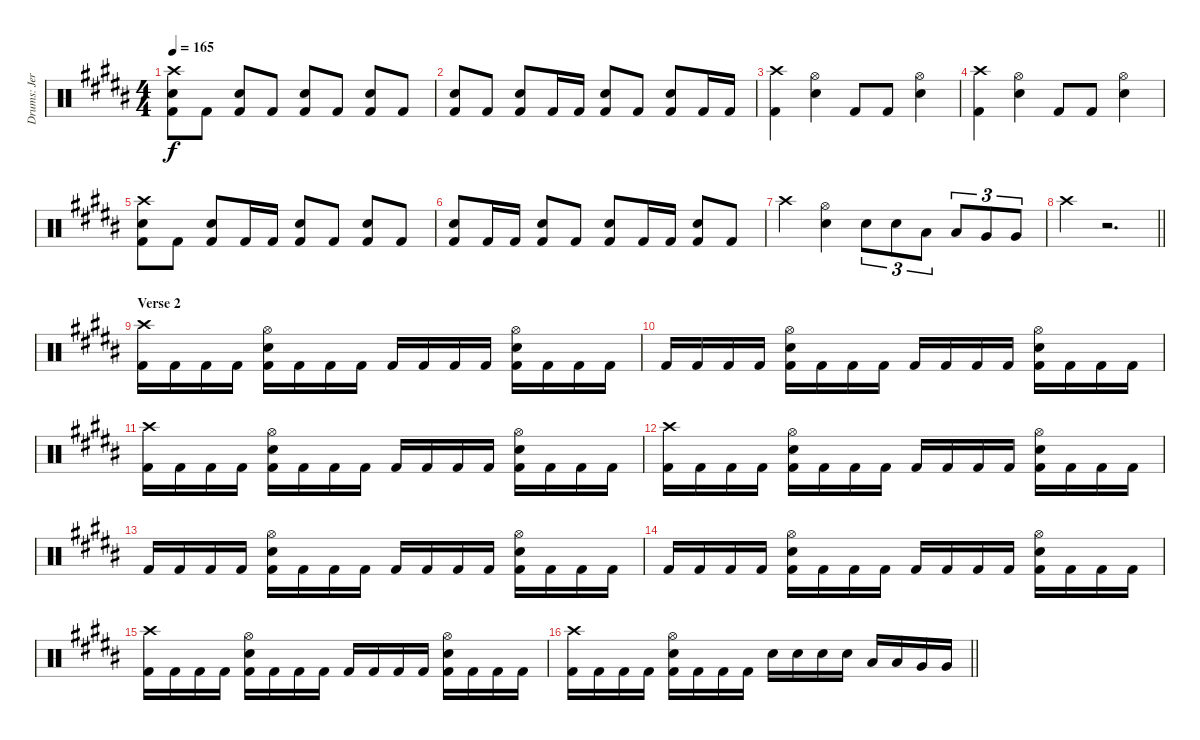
\track ("Drums: Jere Luokkamäki" "Drums: Jer") {instrument percussion}
\staff {score}
\articulation defaults
\ts (4 4)
\tempo 165
\clef neutral
\ks g#minor
("Crash high (hit)" "Electric Snare (hit)" "Kick (hit) 2").8{dy f} "Kick (hit) 2".8 ("Electric Snare (hit)" "Kick (hit) 2").8 "Kick (hit) 2".8 ("Electric Snare (hit)" "Kick (hit) 2").8 "Kick (hit) 2".8 ("Electric Snare (hit)" "Kick (hit) 2").8 "Kick (hit) 2".8 |
("Electric Snare (hit)" "Kick (hit) 2").8 "Kick (hit) 2".8 ("Electric Snare (hit)" "Kick (hit) 2").8 "Kick (hit) 2".16 "Kick (hit) 2".16 ("Electric Snare (hit)" "Kick (hit) 2").8 "Kick (hit) 2".8 ("Electric Snare (hit)" "Kick (hit) 2").8 "Kick (hit) 2".16 "Kick (hit) 2".16 |
("Crash high (hit)" "Kick (hit) 2").4 ("Hi-Hat (open)" "Electric Snare (hit)").4 "Kick (hit) 2".8 "Kick (hit) 2".8 ("Hi-Hat (open)" "Electric Snare (hit)").4 |
("Crash high (hit)" "Kick (hit) 2").4 ("Hi-Hat (open)" "Electric Snare (hit)").4 "Kick (hit) 2".8 "Kick (hit) 2".8 ("Hi-Hat (open)" "Electric Snare (hit)").4 |
("Crash high (hit)" "Electric Snare (hit)" "Kick (hit) 2").8 "Kick (hit) 2".8 ("Electric Snare (hit)" "Kick (hit) 2").8 "Kick (hit) 2".16 "Kick (hit) 2".16 ("Electric Snare (hit)" "Kick (hit) 2").8 "Kick (hit) 2".8 ("Electric Snare (hit)" "Kick (hit) 2").8 "Kick (hit) 2".8 |
("Electric Snare (hit)" "Kick (hit) 2").8 "Kick (hit) 2".16 "Kick (hit) 2".16 ("Electric Snare (hit)" "Kick (hit) 2").8 "Kick (hit) 2".8 ("Electric Snare (hit)" "Kick (hit) 2").8 "Kick (hit) 2".16 "Kick (hit) 2".16 ("Electric Snare (hit)" "Kick (hit) 2").8 "Kick (hit) 2".8 |
"Crash high (hit)".4 ("Hi-Hat (open)" "Electric Snare (hit)").4 "Electric Snare (hit)".8{tu (3 2)} "Electric Snare (hit)".8{tu (3 2)} "Low Tom (hit)".8{tu (3 2)} "Low Tom (hit)".8{tu (3 2)} "Very Low Tom (hit)".8{tu (3 2)} "Very Low Tom (hit)".8{tu (3 2)} |
\barLineRight lightlight "Crash high (hit)".4
r.2{d} |
\section ("" "Verse 2")
("Crash high (hit)" "Kick (hit) 2").16 "Kick (hit) 2".16 "Kick (hit) 2".16 "Kick (hit) 2".16 ("Hi-Hat (open)" "Electric Snare (hit)" "Kick (hit) 2").16 "Kick (hit) 2".16 "Kick (hit) 2".16 "Kick (hit) 2".16 "Kick (hit) 2".16 "Kick (hit) 2".16 "Kick (hit) 2".16 "Kick (hit) 2".16 ("Hi-Hat (open)" "Electric Snare (hit)" "Kick (hit) 2").16 "Kick (hit) 2".16 "Kick (hit) 2".16 "Kick (hit) 2".16 |
"Kick (hit) 2".16 "Kick (hit) 2".16 "Kick (hit) 2".16 "Kick (hit) 2".16 ("Hi-Hat (open)" "Electric Snare (hit)" "Kick (hit) 2").16 "Kick (hit) 2".16 "Kick (hit) 2".16 "Kick (hit) 2".16 "Kick (hit) 2".16 "Kick (hit) 2".16 "Kick (hit) 2".16 "Kick (hit) 2".16 ("Hi-Hat (open)" "Electric Snare (hit)" "Kick (hit) 2").16 "Kick (hit) 2".16 "Kick (hit) 2".16 "Kick (hit) 2".16 |
("Crash high (hit)" "Kick (hit) 2").16 "Kick (hit) 2".16 "Kick (hit) 2".16 "Kick (hit) 2".16 ("Hi-Hat (open)" "Electric Snare (hit)" "Kick (hit) 2").16 "Kick (hit) 2".16 "Kick (hit) 2".16 "Kick (hit) 2".16 "Kick (hit) 2".16 "Kick (hit) 2".16 "Kick (hit) 2".16 "Kick (hit) 2".16 ("Hi-Hat (open)" "Electric Snare (hit)" "Kick (hit) 2").16 "Kick (hit) 2".16 "Kick (hit) 2".16 "Kick (hit) 2".16 |
("Crash high (hit)" "Kick (hit) 2").16 "Kick (hit) 2".16 "Kick (hit) 2".16 "Kick (hit) 2".16 ("Hi-Hat (open)" "Electric Snare (hit)" "Kick (hit) 2").16 "Kick (hit) 2".16 "Kick (hit) 2".16 "Kick (hit) 2".16 "Kick (hit) 2".16 "Kick (hit) 2".16 "Kick (hit) 2".16 "Kick (hit) 2".16 ("Hi-Hat (open)" "Electric Snare (hit)" "Kick (hit) 2").16 "Kick (hit) 2".16 "Kick (hit) 2".16 "Kick (hit) 2".16 |
"Kick (hit) 2".16 "Kick (hit) 2".16 "Kick (hit) 2".16 "Kick (hit) 2".16 ("Hi-Hat (open)" "Electric Snare (hit)" "Kick (hit) 2").16 "Kick (hit) 2".16 "Kick (hit) 2".16 "Kick (hit) 2".16 "Kick (hit) 2".16 "Kick (hit) 2".16 "Kick (hit) 2".16 "Kick (hit) 2".16 ("Hi-Hat (open)" "Electric Snare (hit)" "Kick (hit) 2").16 "Kick (hit) 2".16 "Kick (hit) 2".16 "Kick (hit) 2".16 |
"Kick (hit) 2".16 "Kick (hit) 2".16 "Kick (hit) 2".16 "Kick (hit) 2".16 ("Hi-Hat (open)" "Electric Snare (hit)" "Kick (hit) 2").16 "Kick (hit) 2".16 "Kick (hit) 2".16 "Kick (hit) 2".16 "Kick (hit) 2".16 "Kick (hit) 2".16 "Kick (hit) 2".16 "Kick (hit) 2".16 ("Hi-Hat (open)" "Electric Snare (hit)" "Kick (hit) 2").16 "Kick (hit) 2".16 "Kick (hit) 2".16 "Kick (hit) 2".16 |
("Crash high (hit)" "Kick (hit) 2").16 "Kick (hit) 2".16 "Kick (hit) 2".16 "Kick (hit) 2".16 ("Hi-Hat (open)" "Electric Snare (hit)" "Kick (hit) 2").16 "Kick (hit) 2".16 "Kick (hit) 2".16 "Kick (hit) 2".16 "Kick (hit) 2".16 "Kick (hit) 2".16 "Kick (hit) 2".16 "Kick (hit) 2".16 ("Hi-Hat (open)" "Electric Snare (hit)" "Kick (hit) 2").16 "Kick (hit) 2".16 "Kick (hit) 2".16 "Kick (hit) 2".16 |
\barLineRight lightlight
("Crash high (hit)" "Kick (hit) 2").16 "Kick (hit) 2".16 "Kick (hit) 2".16 "Kick (hit) 2".16 ("Hi-Hat (open)" "Electric Snare (hit)" "Kick (hit) 2").16 "Kick (hit) 2".16 "Kick (hit) 2".16 "Kick (hit) 2".16 "Electric Snare (hit)".16 "Electric Snare (hit)".16 "Electric Snare (hit)".16 "Electric Snare (hit)".16 "Low Tom (hit)".16 "Low Tom (hit)".16 "Very Low Tom (hit)".16 "Very Low Tom (hit)".16
